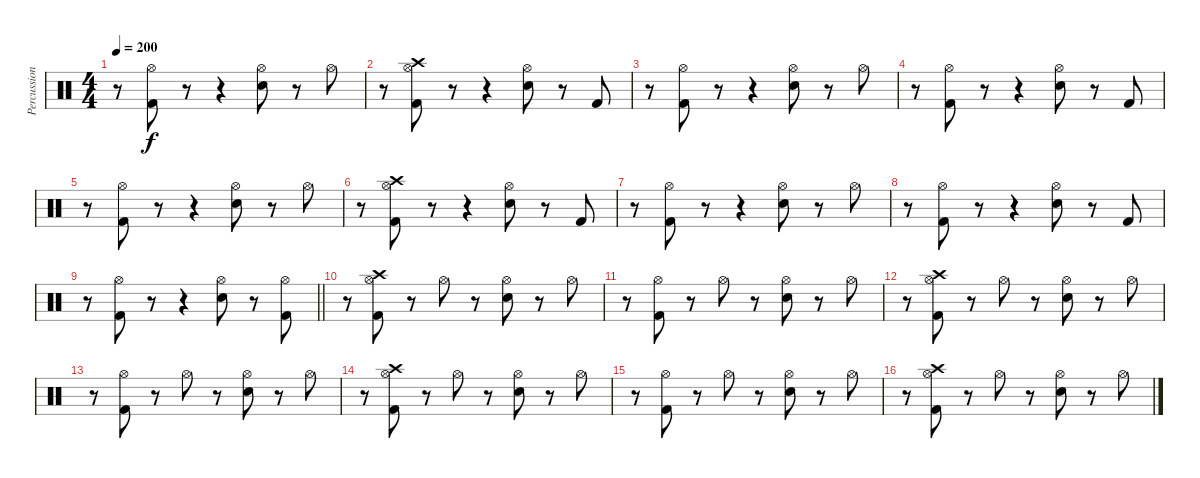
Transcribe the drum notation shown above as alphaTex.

\track ("Percussion" "Percussion") {instrument percussion}
\staff {score}
\articulation defaults
\ts (4 4)
\tempo 200
\clef neutral
\ks c
r.8{dy f} ("Kick (hit) 2" "Hi-Hat (open)").8 r.8 r.4 ("Snare (hit) 2" "Hi-Hat (open)").8 r.8 "Hi-Hat (open)".8 |
r.8 ("Kick (hit) 2" "Hi-Hat (open)" "Crash high (hit)").8 r.8 r.4 ("Snare (hit) 2" "Hi-Hat (open)").8 r.8 "Kick (hit) 2".8 |
r.8 ("Kick (hit) 2" "Hi-Hat (open)").8 r.8 r.4 ("Snare (hit) 2" "Hi-Hat (open)").8 r.8 "Hi-Hat (open)".8 |
r.8 ("Kick (hit) 2" "Hi-Hat (open)").8 r.8 r.4 ("Snare (hit) 2" "Hi-Hat (open)").8 r.8 "Kick (hit) 2".8 |
r.8 ("Kick (hit) 2" "Hi-Hat (open)").8 r.8 r.4 ("Snare (hit) 2" "Hi-Hat (open)").8 r.8 "Hi-Hat (open)".8 |
r.8 ("Kick (hit) 2" "Hi-Hat (open)" "Crash high (hit)").8 r.8 r.4 ("Snare (hit) 2" "Hi-Hat (open)").8 r.8 "Kick (hit) 2".8 |
r.8 ("Kick (hit) 2" "Hi-Hat (open)").8 r.8 r.4 ("Snare (hit) 2" "Hi-Hat (open)").8 r.8 "Hi-Hat (open)".8 |
r.8 ("Kick (hit) 2" "Hi-Hat (open)").8 r.8 r.4 ("Snare (hit) 2" "Hi-Hat (open)").8 r.8 "Kick (hit) 2".8 |
\barLineRight lightlight
r.8 ("Kick (hit) 2" "Hi-Hat (open)").8 r.8 r.4 ("Snare (hit) 2" "Hi-Hat (open)").8 r.8 ("Kick (hit) 2" "Hi-Hat (open)").8 |
r.8 ("Kick (hit) 2" "Hi-Hat (open)" "Crash high (hit)").8 r.8 "Hi-Hat (open)".8 r.8 ("Snare (hit) 2" "Hi-Hat (open)").8 r.8 "Hi-Hat (open)".8 |
r.8 ("Kick (hit) 2" "Hi-Hat (open)").8 r.8 "Hi-Hat (open)".8 r.8 ("Snare (hit) 2" "Hi-Hat (open)").8 r.8 "Hi-Hat (open)".8 |
r.8 ("Kick (hit) 2" "Hi-Hat (open)" "Crash high (hit)").8 r.8 "Hi-Hat (open)".8 r.8 ("Snare (hit) 2" "Hi-Hat (open)").8 r.8 "Hi-Hat (open)".8 |
r.8 ("Kick (hit) 2" "Hi-Hat (open)").8 r.8 "Hi-Hat (open)".8 r.8 ("Snare (hit) 2" "Hi-Hat (open)").8 r.8 "Hi-Hat (open)".8 |
r.8 ("Kick (hit) 2" "Hi-Hat (open)" "Crash high (hit)").8 r.8 "Hi-Hat (open)".8 r.8 ("Snare (hit) 2" "Hi-Hat (open)").8 r.8 "Hi-Hat (open)".8 |
r.8 ("Kick (hit) 2" "Hi-Hat (open)").8 r.8 "Hi-Hat (open)".8 r.8 ("Snare (hit) 2" "Hi-Hat (open)").8 r.8 "Hi-Hat (open)".8 |
r.8 ("Kick (hit) 2" "Hi-Hat (open)" "Crash high (hit)").8 r.8 "Hi-Hat (open)".8 r.8 ("Snare (hit) 2" "Hi-Hat (open)").8 r.8 "Hi-Hat (open)".8
